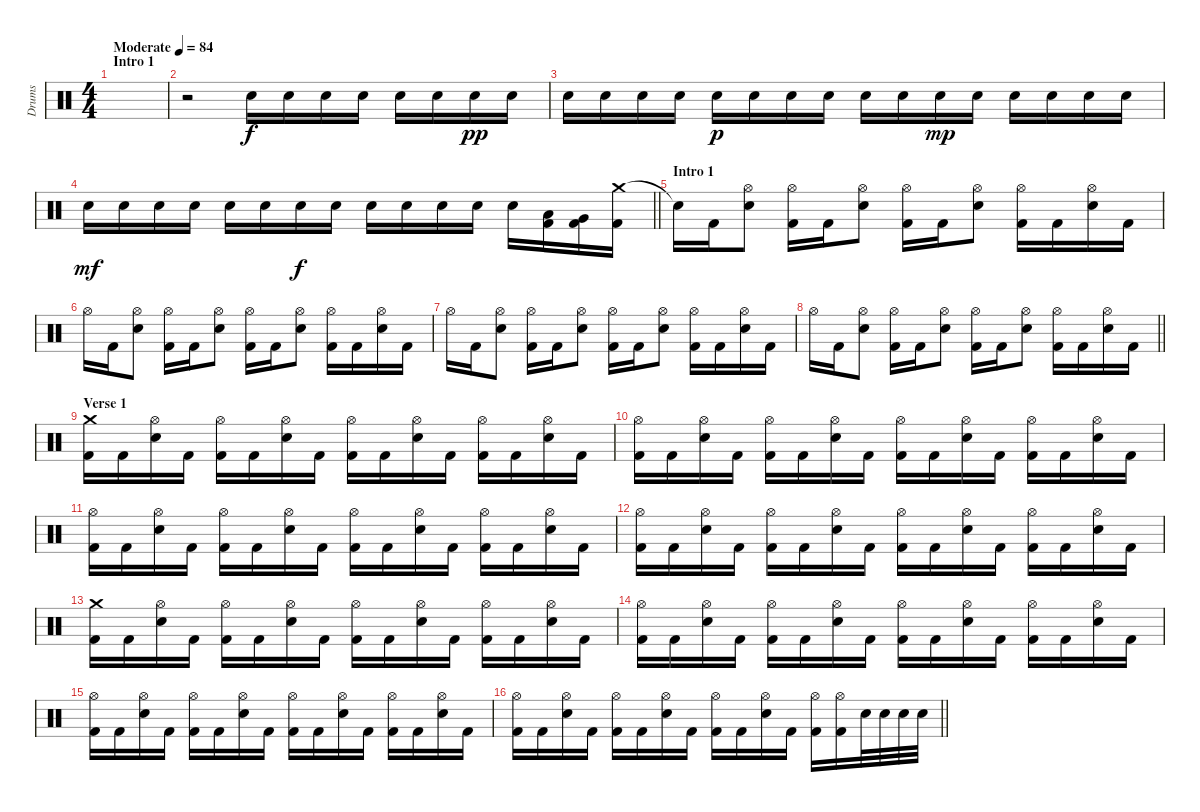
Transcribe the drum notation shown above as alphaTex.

\track ("Drums" "Drums") {instrument percussion}
\staff {score}
\articulation defaults
\ts (4 4)
\section ("" "Intro 1")
\tempo (84 "Moderate")
\clef neutral
\ks c
|
r.2 "Snare (hit) 2".16 "Snare (hit) 2".16 "Snare (hit) 2".16 "Snare (hit) 2".16 "Snare (hit) 2".16 "Snare (hit) 2".16 "Snare (hit) 2".16{dy pp} "Snare (hit) 2".16 |
"Snare (hit) 2".16 "Snare (hit) 2".16 "Snare (hit) 2".16 "Snare (hit) 2".16 "Snare (hit) 2".16{dy p} "Snare (hit) 2".16 "Snare (hit) 2".16 "Snare (hit) 2".16 "Snare (hit) 2".16 "Snare (hit) 2".16 "Snare (hit) 2".16{dy mp} "Snare (hit) 2".16 "Snare (hit) 2".16 "Snare (hit) 2".16 "Snare (hit) 2".16 "Snare (hit) 2".16 |
\barLineRight lightlight "Snare (hit) 2".16{dy mf} "Snare (hit) 2".16 "Snare (hit) 2".16 "Snare (hit) 2".16 "Snare (hit) 2".16 "Snare (hit) 2".16 "Snare (hit) 2".16{dy f} "Snare (hit) 2".16 "Snare (hit) 2".16 "Snare (hit) 2".16 "Snare (hit) 2".16 "Snare (hit) 2".16 "Snare (hit) 2".16
("Low Tom (hit)" "Kick (hit) 2").16 ("Very Low Tom (hit)" "Kick (hit) 2").16 ("Crash medium (hit)" "Kick (hit) 2").16 |
\section ("" "Intro 1")
"Snare (hit)"{t}.16 "Kick (hit) 2".16 ("Hi-Hat (open)" "Snare (hit) 2").8 ("Hi-Hat (open)" "Kick (hit) 2").16 "Kick (hit) 2".16 ("Hi-Hat (open)" "Snare (hit) 2").8 ("Hi-Hat (open)" "Kick (hit) 2").16 "Kick (hit) 2".16 ("Hi-Hat (open)" "Snare (hit) 2").8 ("Hi-Hat (open)" "Kick (hit) 2").16 "Kick (hit) 2".16 ("Hi-Hat (open)" "Snare (hit) 2").16 "Kick (hit) 2".16 |
"Hi-Hat (open)".16 "Kick (hit) 2".16 ("Hi-Hat (open)" "Snare (hit) 2").8 ("Hi-Hat (open)" "Kick (hit) 2").16 "Kick (hit) 2".16 ("Hi-Hat (open)" "Snare (hit) 2").8 ("Hi-Hat (open)" "Kick (hit) 2").16 "Kick (hit) 2".16 ("Hi-Hat (open)" "Snare (hit) 2").8 ("Hi-Hat (open)" "Kick (hit) 2").16 "Kick (hit) 2".16 ("Hi-Hat (open)" "Snare (hit) 2").16 "Kick (hit) 2".16 |
"Hi-Hat (open)".16 "Kick (hit) 2".16 ("Hi-Hat (open)" "Snare (hit) 2").8 ("Hi-Hat (open)" "Kick (hit) 2").16 "Kick (hit) 2".16 ("Hi-Hat (open)" "Snare (hit) 2").8 ("Hi-Hat (open)" "Kick (hit) 2").16 "Kick (hit) 2".16 ("Hi-Hat (open)" "Snare (hit) 2").8 ("Hi-Hat (open)" "Kick (hit) 2").16 "Kick (hit) 2".16 ("Hi-Hat (open)" "Snare (hit) 2").16 "Kick (hit) 2".16 |
\barLineRight lightlight "Hi-Hat (open)".16 "Kick (hit) 2".16
("Hi-Hat (open)" "Snare (hit) 2").8 ("Hi-Hat (open)" "Kick (hit) 2").16 "Kick (hit) 2".16 ("Hi-Hat (open)" "Snare (hit) 2").8 ("Hi-Hat (open)" "Kick (hit) 2").16 "Kick (hit) 2".16 ("Hi-Hat (open)" "Snare (hit) 2").8 ("Hi-Hat (open)" "Kick (hit) 2").16 "Kick (hit) 2".16 ("Hi-Hat (open)" "Snare (hit) 2").16 "Kick (hit) 2".16 |
\section ("" "Verse 1")
("Crash medium (hit)" "Kick (hit) 2").16 "Kick (hit) 2".16 ("Hi-Hat (open)" "Snare (hit) 2").16 "Kick (hit) 2".16 ("Hi-Hat (open)" "Kick (hit) 2").16 "Kick (hit) 2".16 ("Hi-Hat (open)" "Snare (hit) 2").16 "Kick (hit) 2".16 ("Hi-Hat (open)" "Kick (hit) 2").16 "Kick (hit) 2".16 ("Hi-Hat (open)" "Snare (hit) 2").16 "Kick (hit) 2".16 ("Hi-Hat (open)" "Kick (hit) 2").16 "Kick (hit) 2".16 ("Hi-Hat (open)" "Snare (hit) 2").16 "Kick (hit) 2".16 |
("Hi-Hat (open)" "Kick (hit) 2").16 "Kick (hit) 2".16 ("Hi-Hat (open)" "Snare (hit) 2").16 "Kick (hit) 2".16 ("Hi-Hat (open)" "Kick (hit) 2").16 "Kick (hit) 2".16 ("Hi-Hat (open)" "Snare (hit) 2").16 "Kick (hit) 2".16 ("Hi-Hat (open)" "Kick (hit) 2").16 "Kick (hit) 2".16 ("Hi-Hat (open)" "Snare (hit) 2").16 "Kick (hit) 2".16 ("Hi-Hat (open)" "Kick (hit) 2").16 "Kick (hit) 2".16 ("Hi-Hat (open)" "Snare (hit) 2").16 "Kick (hit) 2".16 |
("Hi-Hat (open)" "Kick (hit) 2").16 "Kick (hit) 2".16 ("Hi-Hat (open)" "Snare (hit) 2").16 "Kick (hit) 2".16 ("Hi-Hat (open)" "Kick (hit) 2").16 "Kick (hit) 2".16 ("Hi-Hat (open)" "Snare (hit) 2").16 "Kick (hit) 2".16 ("Hi-Hat (open)" "Kick (hit) 2").16 "Kick (hit) 2".16 ("Hi-Hat (open)" "Snare (hit) 2").16 "Kick (hit) 2".16 ("Hi-Hat (open)" "Kick (hit) 2").16 "Kick (hit) 2".16 ("Hi-Hat (open)" "Snare (hit) 2").16 "Kick (hit) 2".16 |
("Hi-Hat (open)" "Kick (hit) 2").16 "Kick (hit) 2".16 ("Hi-Hat (open)" "Snare (hit) 2").16 "Kick (hit) 2".16 ("Hi-Hat (open)" "Kick (hit) 2").16 "Kick (hit) 2".16 ("Hi-Hat (open)" "Snare (hit) 2").16 "Kick (hit) 2".16 ("Hi-Hat (open)" "Kick (hit) 2").16 "Kick (hit) 2".16 ("Hi-Hat (open)" "Snare (hit) 2").16 "Kick (hit) 2".16 ("Hi-Hat (open)" "Kick (hit) 2").16 "Kick (hit) 2".16 ("Hi-Hat (open)" "Snare (hit) 2").16 "Kick (hit) 2".16 |
("Crash medium (hit)" "Kick (hit) 2").16 "Kick (hit) 2".16 ("Hi-Hat (open)" "Snare (hit) 2").16 "Kick (hit) 2".16 ("Hi-Hat (open)" "Kick (hit) 2").16 "Kick (hit) 2".16 ("Hi-Hat (open)" "Snare (hit) 2").16 "Kick (hit) 2".16 ("Hi-Hat (open)" "Kick (hit) 2").16 "Kick (hit) 2".16 ("Hi-Hat (open)" "Snare (hit) 2").16 "Kick (hit) 2".16 ("Hi-Hat (open)" "Kick (hit) 2").16 "Kick (hit) 2".16 ("Hi-Hat (open)" "Snare (hit) 2").16 "Kick (hit) 2".16 |
("Hi-Hat (open)" "Kick (hit) 2").16 "Kick (hit) 2".16 ("Hi-Hat (open)" "Snare (hit) 2").16 "Kick (hit) 2".16 ("Hi-Hat (open)" "Kick (hit) 2").16 "Kick (hit) 2".16 ("Hi-Hat (open)" "Snare (hit) 2").16 "Kick (hit) 2".16 ("Hi-Hat (open)" "Kick (hit) 2").16 "Kick (hit) 2".16 ("Hi-Hat (open)" "Snare (hit) 2").16 "Kick (hit) 2".16 ("Hi-Hat (open)" "Kick (hit) 2").16 "Kick (hit) 2".16 ("Hi-Hat (open)" "Snare (hit) 2").16 "Kick (hit) 2".16 |
("Hi-Hat (open)" "Kick (hit) 2").16 "Kick (hit) 2".16 ("Hi-Hat (open)" "Snare (hit) 2").16 "Kick (hit) 2".16 ("Hi-Hat (open)" "Kick (hit) 2").16 "Kick (hit) 2".16 ("Hi-Hat (open)" "Snare (hit) 2").16 "Kick (hit) 2".16 ("Hi-Hat (open)" "Kick (hit) 2").16 "Kick (hit) 2".16 ("Hi-Hat (open)" "Snare (hit) 2").16 "Kick (hit) 2".16 ("Hi-Hat (open)" "Kick (hit) 2").16 "Kick (hit) 2".16 ("Hi-Hat (open)" "Snare (hit) 2").16 "Kick (hit) 2".16 |
\barLineRight lightlight
("Hi-Hat (open)" "Kick (hit) 2").16 "Kick (hit) 2".16 ("Hi-Hat (open)" "Snare (hit) 2").16 "Kick (hit) 2".16 ("Hi-Hat (open)" "Kick (hit) 2").16 "Kick (hit) 2".16 ("Hi-Hat (open)" "Snare (hit) 2").16 "Kick (hit) 2".16 ("Hi-Hat (open)" "Kick (hit) 2").16 "Kick (hit) 2".16 ("Hi-Hat (open)" "Snare (hit) 2").16 "Kick (hit) 2".16 ("Hi-Hat (open)" "Kick (hit) 2").16 ("Hi-Hat (open)" "Kick (hit) 2").16 "Snare (hit) 2".32 "Snare (hit) 2".32 "Snare (hit) 2".32 "Snare (hit) 2".32
